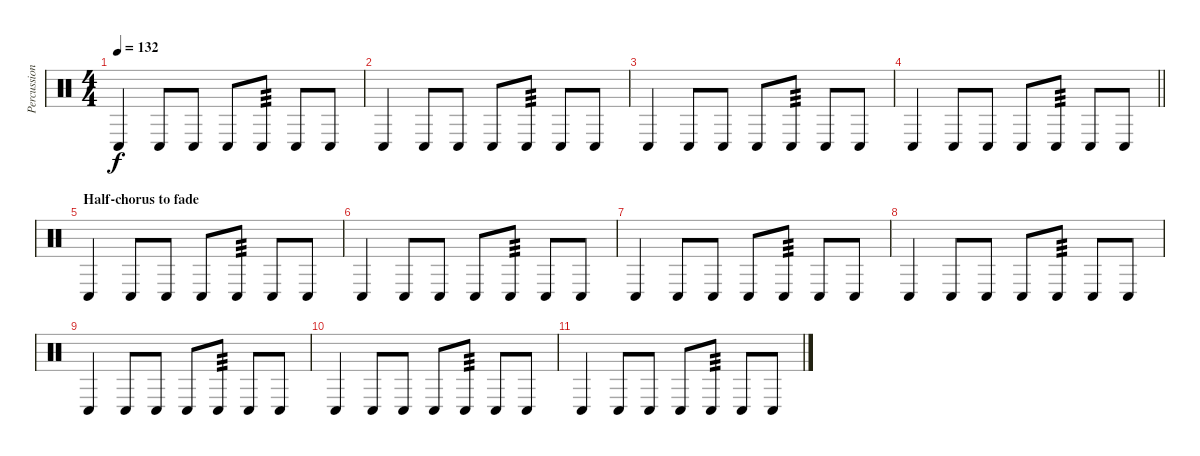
\track ("Percussion" "Percussion") {instrument percussion}
\staff {score}
\articulation defaults
\ts (4 4)
\tempo 132
\clef neutral
\ks c "Conga low (hit)".4{dy f} "Conga low (hit)".8 "Conga low (hit)".8 "Conga low (hit)".8 "Conga low (hit)".8{tp 3} "Conga low (hit)".8 "Conga low (hit)".8
|
"Conga low (hit)".4 "Conga low (hit)".8 "Conga low (hit)".8 "Conga low (hit)".8 "Conga low (hit)".8{tp 3} "Conga low (hit)".8 "Conga low (hit)".8 |
"Conga low (hit)".4 "Conga low (hit)".8 "Conga low (hit)".8 "Conga low (hit)".8 "Conga low (hit)".8{tp 3} "Conga low (hit)".8 "Conga low (hit)".8 |
\barLineRight lightlight "Conga low (hit)".4 "Conga low (hit)".8 "Conga low (hit)".8 "Conga low (hit)".8 "Conga low (hit)".8{tp 3} "Conga low (hit)".8 "Conga low (hit)".8
|
\section ("" "Half-chorus to fade")
"Conga low (hit)".4{volume 6} "Conga low (hit)".8 "Conga low (hit)".8 "Conga low (hit)".8 "Conga low (hit)".8{tp 3} "Conga low (hit)".8 "Conga low (hit)".8 |
"Conga low (hit)".4 "Conga low (hit)".8 "Conga low (hit)".8 "Conga low (hit)".8 "Conga low (hit)".8{tp 3} "Conga low (hit)".8 "Conga low (hit)".8 |
"Conga low (hit)".4 "Conga low (hit)".8 "Conga low (hit)".8 "Conga low (hit)".8 "Conga low (hit)".8{tp 3} "Conga low (hit)".8 "Conga low (hit)".8 |
"Conga low (hit)".4 "Conga low (hit)".8 "Conga low (hit)".8 "Conga low (hit)".8 "Conga low (hit)".8{tp 3} "Conga low (hit)".8 "Conga low (hit)".8 |
"Conga low (hit)".4{volume 0} "Conga low (hit)".8 "Conga low (hit)".8 "Conga low (hit)".8 "Conga low (hit)".8{tp 3} "Conga low (hit)".8 "Conga low (hit)".8 |
"Conga low (hit)".4 "Conga low (hit)".8 "Conga low (hit)".8 "Conga low (hit)".8 "Conga low (hit)".8{tp 3} "Conga low (hit)".8 "Conga low (hit)".8 |
"Conga low (hit)".4 "Conga low (hit)".8 "Conga low (hit)".8 "Conga low (hit)".8 "Conga low (hit)".8{tp 3} "Conga low (hit)".8 "Conga low (hit)".8
